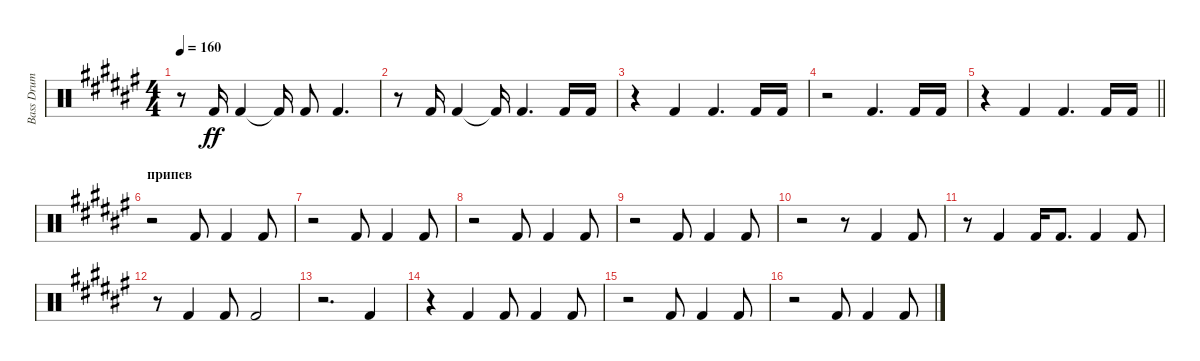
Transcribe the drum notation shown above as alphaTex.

\track ("Bass Drum" "Bass Drum") {instrument percussion}
\staff {score}
\articulation defaults
\ts (4 4)
\tempo 160
\clef neutral
\ks d#minor
r.8{dy ff} "Kick (hit) 2".16 "Kick (hit) 2".4 "Kick (hit) 2"{t}.16 "Kick (hit) 2".8 "Kick (hit) 2".4{d} |
r.8 "Kick (hit) 2".16 "Kick (hit) 2".4 "Kick (hit) 2"{t}.16 "Kick (hit) 2".4{d} "Kick (hit) 2".16 "Kick (hit) 2".16 |
r.4 "Kick (hit) 2".4 "Kick (hit) 2".4{d} "Kick (hit) 2".16 "Kick (hit) 2".16 |
r.2 "Kick (hit) 2".4{d} "Kick (hit) 2".16 "Kick (hit) 2".16 |
\barLineRight lightlight
r.4 "Kick (hit) 2".4 "Kick (hit) 2".4{d} "Kick (hit) 2".16 "Kick (hit) 2".16 |
\section ("" "припев")
r.2 "Kick (hit) 2".8 "Kick (hit) 2".4 "Kick (hit) 2".8 |
r.2 "Kick (hit) 2".8 "Kick (hit) 2".4 "Kick (hit) 2".8 |
r.2 "Kick (hit) 2".8 "Kick (hit) 2".4 "Kick (hit) 2".8 |
r.2 "Kick (hit) 2".8 "Kick (hit) 2".4 "Kick (hit) 2".8 |
r.2 r.8 "Kick (hit) 2".4 "Kick (hit) 2".8 |
r.8 "Kick (hit) 2".4 "Kick (hit) 2".16 "Kick (hit) 2".8{d} "Kick (hit) 2".4 "Kick (hit) 2".8 |
r.8 "Kick (hit) 2".4 "Kick (hit) 2".8 "Kick (hit) 2".2 |
r.2{d} "Kick (hit) 2".4 |
r.4 "Kick (hit) 2".4 "Kick (hit) 2".8 "Kick (hit) 2".4 "Kick (hit) 2".8 |
r.2 "Kick (hit) 2".8 "Kick (hit) 2".4 "Kick (hit) 2".8 |
r.2 "Kick (hit) 2".8 "Kick (hit) 2".4 "Kick (hit) 2".8
